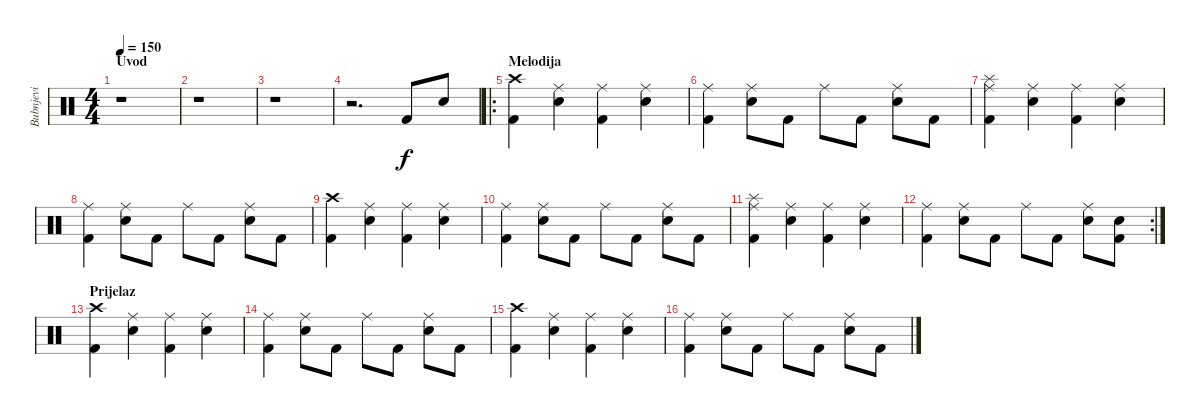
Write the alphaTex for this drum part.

\track ("Bubnjevi" "Bubnjevi") {instrument percussion}
\staff {score}
\articulation defaults
\ts (4 4)
\section ("" "Uvod")
\tempo 150
\clef neutral
\ks c
r.1{dy f} |
r.1 |
r.1 |
r.2{d} "Kick (hit) 2".8 "Snare (hit) 2".8 |
\ro
\section ("" "Melodija")
("Crash high (hit)" "Kick (hit) 2").4 ("Ride (middle)" "Snare (hit) 2").4 ("Ride (middle)" "Kick (hit) 2").4 ("Ride (middle)" "Snare (hit) 2").4 |
("Ride (middle)" "Kick (hit) 2").4 ("Ride (middle)" "Snare (hit) 2").8 "Kick (hit) 2".8 "Ride (middle)".8 "Kick (hit) 2".8 ("Ride (middle)" "Snare (hit) 2").8 "Kick (hit) 2".8 |
("Splash (hit)" "Ride (middle)" "Kick (hit) 2").4 ("Ride (middle)" "Snare (hit) 2").4 ("Ride (middle)" "Kick (hit) 2").4 ("Ride (middle)" "Snare (hit) 2").4 |
("Ride (middle)" "Kick (hit) 2").4 ("Ride (middle)" "Snare (hit) 2").8 "Kick (hit) 2".8 "Ride (middle)".8 "Kick (hit) 2".8 ("Ride (middle)" "Snare (hit) 2").8 "Kick (hit) 2".8 |
("Crash high (hit)" "Kick (hit) 2").4 ("Ride (middle)" "Snare (hit) 2").4 ("Ride (middle)" "Kick (hit) 2").4 ("Ride (middle)" "Snare (hit) 2").4 |
("Ride (middle)" "Kick (hit) 2").4 ("Ride (middle)" "Snare (hit) 2").8 "Kick (hit) 2".8 "Ride (middle)".8 "Kick (hit) 2".8 ("Ride (middle)" "Snare (hit) 2").8 "Kick (hit) 2".8 |
("Splash (hit)" "Ride (middle)" "Kick (hit) 2").4 ("Ride (middle)" "Snare (hit) 2").4 ("Ride (middle)" "Kick (hit) 2").4 ("Ride (middle)" "Snare (hit) 2").4 |
\rc 2
("Ride (middle)" "Kick (hit) 2").4 ("Ride (middle)" "Snare (hit) 2").8 "Kick (hit) 2".8 "Ride (middle)".8 "Kick (hit) 2".8 ("Ride (middle)" "Snare (hit) 2").8 ("Snare (hit) 2" "Kick (hit) 2").8 |
\section ("" "Prijelaz")
("Crash high (hit)" "Kick (hit) 2").4 ("Ride (middle)" "Snare (hit) 2").4 ("Ride (middle)" "Kick (hit) 2").4 ("Ride (middle)" "Snare (hit) 2").4 |
("Ride (middle)" "Kick (hit) 2").4 ("Ride (middle)" "Snare (hit) 2").8 "Kick (hit) 2".8 "Ride (middle)".8 "Kick (hit) 2".8 ("Ride (middle)" "Snare (hit) 2").8 "Kick (hit) 2".8 |
("Crash high (hit)" "Kick (hit) 2").4 ("Ride (middle)" "Snare (hit) 2").4 ("Ride (middle)" "Kick (hit) 2").4 ("Ride (middle)" "Snare (hit) 2").4 |
("Ride (middle)" "Kick (hit) 2").4 ("Ride (middle)" "Snare (hit) 2").8 "Kick (hit) 2".8 "Ride (middle)".8 "Kick (hit) 2".8 ("Ride (middle)" "Snare (hit) 2").8 "Kick (hit) 2".8
